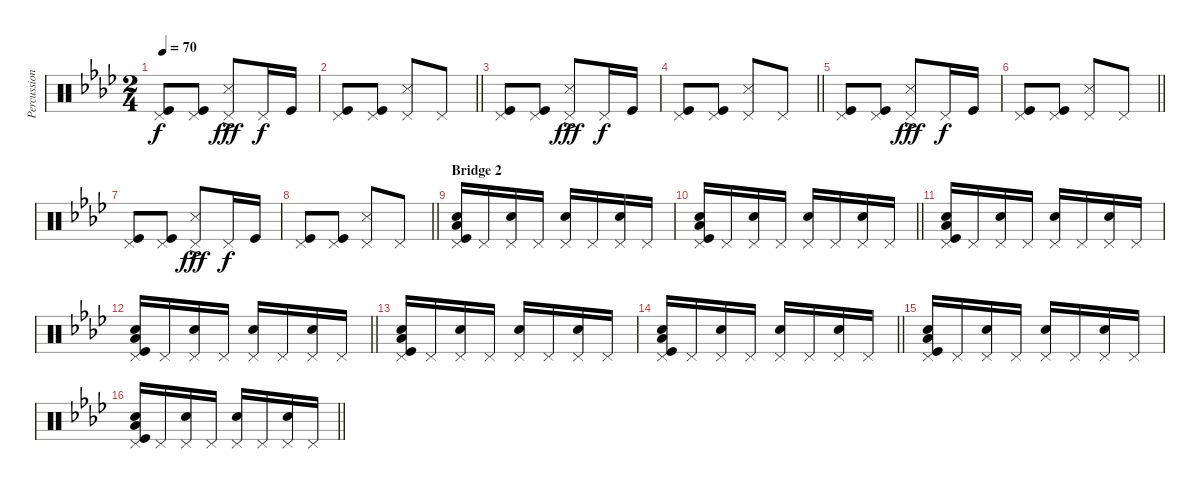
\track ("Percussions" "Percussion") {instrument percussion}
\staff {score}
\articulation defaults
\ts (2 4)
\tempo 70
\clef neutral
\ks fminor
("Kick (hit)" "Pedal Hi-Hat (hit)").8{dy f} ("Kick (hit)" "Pedal Hi-Hat (hit)").8 ("Snare (side stick) 3"{ac} "Pedal Hi-Hat (hit)").8{dy fff} "Pedal Hi-Hat (hit)".16{dy f} "Kick (hit)".16 |
\barLineRight lightlight
("Kick (hit)" "Pedal Hi-Hat (hit)").8 ("Kick (hit)" "Pedal Hi-Hat (hit)").8 ("Snare (side stick) 3" "Pedal Hi-Hat (hit)").8 "Pedal Hi-Hat (hit)".8 |
("Kick (hit)" "Pedal Hi-Hat (hit)").8 ("Kick (hit)" "Pedal Hi-Hat (hit)").8 ("Snare (side stick) 3"{ac} "Pedal Hi-Hat (hit)").8{dy fff} "Pedal Hi-Hat (hit)".16{dy f} "Kick (hit)".16 |
\barLineRight lightlight
("Kick (hit)" "Pedal Hi-Hat (hit)").8 ("Kick (hit)" "Pedal Hi-Hat (hit)").8 ("Snare (side stick) 3" "Pedal Hi-Hat (hit)").8 "Pedal Hi-Hat (hit)".8 |
("Kick (hit)" "Pedal Hi-Hat (hit)").8 ("Kick (hit)" "Pedal Hi-Hat (hit)").8 ("Snare (side stick) 3"{ac} "Pedal Hi-Hat (hit)").8{dy fff} "Pedal Hi-Hat (hit)".16{dy f} "Kick (hit)".16 |
\barLineRight lightlight
("Kick (hit)" "Pedal Hi-Hat (hit)").8 ("Kick (hit)" "Pedal Hi-Hat (hit)").8 ("Snare (side stick) 3" "Pedal Hi-Hat (hit)").8 "Pedal Hi-Hat (hit)".8 |
("Kick (hit)" "Pedal Hi-Hat (hit)").8 ("Kick (hit)" "Pedal Hi-Hat (hit)").8 ("Snare (side stick) 3"{ac} "Pedal Hi-Hat (hit)").8{dy fff} "Pedal Hi-Hat (hit)".16{dy f} "Kick (hit)".16 |
\barLineRight lightlight
("Kick (hit)" "Pedal Hi-Hat (hit)").8 ("Kick (hit)" "Pedal Hi-Hat (hit)").8 ("Snare (side stick) 3" "Pedal Hi-Hat (hit)").8 "Pedal Hi-Hat (hit)".8 |
\section ("" "Bridge 2")
("Electric Snare (hit)" "Kick (hit)" "Pedal Hi-Hat (hit)" "Low Floor Tom (hit)").16 "Pedal Hi-Hat (hit)".16 ("Electric Snare (hit)" "Pedal Hi-Hat (hit)").16 "Pedal Hi-Hat (hit)".16 ("Electric Snare (hit)" "Pedal Hi-Hat (hit)").16 "Pedal Hi-Hat (hit)".16 ("Electric Snare (hit)" "Pedal Hi-Hat (hit)").16 "Pedal Hi-Hat (hit)".16 |
\barLineRight lightlight
("Electric Snare (hit)" "Kick (hit)" "Pedal Hi-Hat (hit)" "Low Floor Tom (hit)").16 "Pedal Hi-Hat (hit)".16 ("Electric Snare (hit)" "Pedal Hi-Hat (hit)").16 "Pedal Hi-Hat (hit)".16 ("Electric Snare (hit)" "Pedal Hi-Hat (hit)").16 "Pedal Hi-Hat (hit)".16 ("Electric Snare (hit)" "Pedal Hi-Hat (hit)").16 "Pedal Hi-Hat (hit)".16 |
("Electric Snare (hit)" "Kick (hit)" "Pedal Hi-Hat (hit)" "Low Floor Tom (hit)").16 "Pedal Hi-Hat (hit)".16 ("Electric Snare (hit)" "Pedal Hi-Hat (hit)").16 "Pedal Hi-Hat (hit)".16 ("Electric Snare (hit)" "Pedal Hi-Hat (hit)").16 "Pedal Hi-Hat (hit)".16 ("Electric Snare (hit)" "Pedal Hi-Hat (hit)").16 "Pedal Hi-Hat (hit)".16 |
\barLineRight lightlight
("Electric Snare (hit)" "Kick (hit)" "Pedal Hi-Hat (hit)" "Low Floor Tom (hit)").16 "Pedal Hi-Hat (hit)".16 ("Electric Snare (hit)" "Pedal Hi-Hat (hit)").16 "Pedal Hi-Hat (hit)".16 ("Electric Snare (hit)" "Pedal Hi-Hat (hit)").16 "Pedal Hi-Hat (hit)".16 ("Electric Snare (hit)" "Pedal Hi-Hat (hit)").16 "Pedal Hi-Hat (hit)".16 |
("Electric Snare (hit)" "Kick (hit)" "Pedal Hi-Hat (hit)" "Low Floor Tom (hit)").16 "Pedal Hi-Hat (hit)".16 ("Electric Snare (hit)" "Pedal Hi-Hat (hit)").16 "Pedal Hi-Hat (hit)".16 ("Electric Snare (hit)" "Pedal Hi-Hat (hit)").16 "Pedal Hi-Hat (hit)".16 ("Electric Snare (hit)" "Pedal Hi-Hat (hit)").16 "Pedal Hi-Hat (hit)".16 |
\barLineRight lightlight
("Electric Snare (hit)" "Kick (hit)" "Pedal Hi-Hat (hit)" "Low Floor Tom (hit)").16 "Pedal Hi-Hat (hit)".16 ("Electric Snare (hit)" "Pedal Hi-Hat (hit)").16 "Pedal Hi-Hat (hit)".16 ("Electric Snare (hit)" "Pedal Hi-Hat (hit)").16 "Pedal Hi-Hat (hit)".16 ("Electric Snare (hit)" "Pedal Hi-Hat (hit)").16 "Pedal Hi-Hat (hit)".16 |
("Electric Snare (hit)" "Kick (hit)" "Pedal Hi-Hat (hit)" "Low Floor Tom (hit)").16 "Pedal Hi-Hat (hit)".16 ("Electric Snare (hit)" "Pedal Hi-Hat (hit)").16 "Pedal Hi-Hat (hit)".16 ("Electric Snare (hit)" "Pedal Hi-Hat (hit)").16 "Pedal Hi-Hat (hit)".16 ("Electric Snare (hit)" "Pedal Hi-Hat (hit)").16 "Pedal Hi-Hat (hit)".16 |
\barLineRight lightlight
("Electric Snare (hit)" "Kick (hit)" "Pedal Hi-Hat (hit)" "Low Floor Tom (hit)").16 "Pedal Hi-Hat (hit)".16 ("Electric Snare (hit)" "Pedal Hi-Hat (hit)").16 "Pedal Hi-Hat (hit)".16 ("Electric Snare (hit)" "Pedal Hi-Hat (hit)").16 "Pedal Hi-Hat (hit)".16 ("Electric Snare (hit)" "Pedal Hi-Hat (hit)").16 "Pedal Hi-Hat (hit)".16
